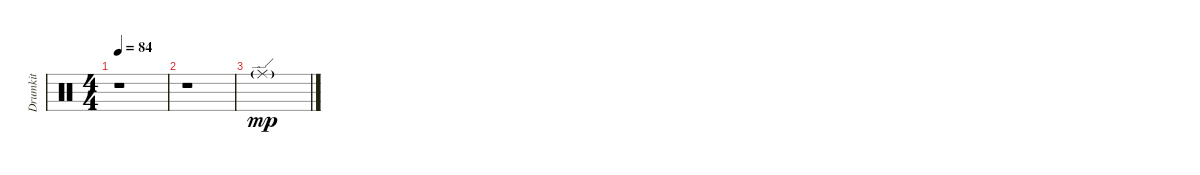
\track ("Drumkit" "Drumkit") {instrument percussion}
\staff {score}
\articulation defaults
\ts (4 4)
\tempo 84
\clef neutral
\ks c
r.1{dy f} |
r.1 |
"Ride (edge)"{g}.1{dy mp}
